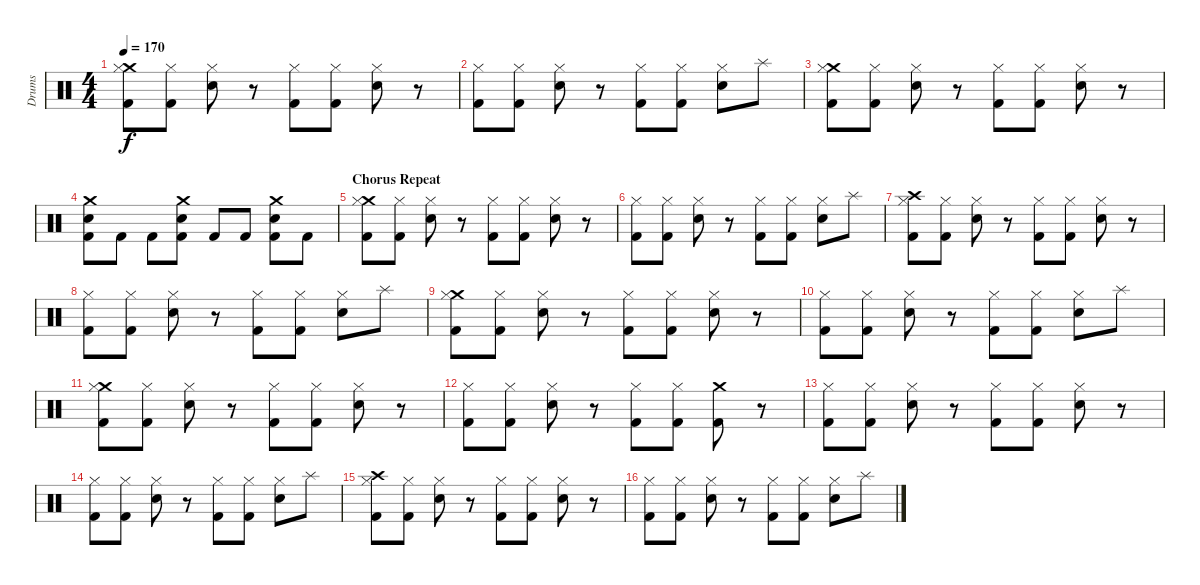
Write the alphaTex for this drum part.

\track ("Drums" "Drums") {instrument percussion}
\staff {score}
\articulation defaults
\ts (4 4)
\tempo 170
\clef neutral
\ks c
("Crash medium (hit)" "Hi-Hat (closed)" "Kick (hit) 2").8{dy f} ("Hi-Hat (closed)" "Kick (hit) 2").8 ("Hi-Hat (closed)" "Snare (hit) 2").8 r.8 ("Hi-Hat (closed)" "Kick (hit) 2").8 ("Hi-Hat (closed)" "Kick (hit) 2").8 ("Hi-Hat (closed)" "Snare (hit) 2").8 r.8 |
("Hi-Hat (closed)" "Kick (hit) 2").8 ("Hi-Hat (closed)" "Kick (hit) 2").8 ("Hi-Hat (closed)" "Snare (hit) 2").8 r.8 ("Hi-Hat (closed)" "Kick (hit) 2").8 ("Hi-Hat (closed)" "Kick (hit) 2").8 ("Hi-Hat (closed)" "Snare (hit) 2").8 "Splash (hit)".8 |
("Crash medium (hit)" "Hi-Hat (closed)" "Kick (hit) 2").8 ("Hi-Hat (closed)" "Kick (hit) 2").8 ("Hi-Hat (closed)" "Snare (hit) 2").8 r.8 ("Hi-Hat (closed)" "Kick (hit) 2").8 ("Hi-Hat (closed)" "Kick (hit) 2").8 ("Hi-Hat (closed)" "Snare (hit) 2").8 r.8 |
("Crash medium (hit)" "Snare (hit) 2" "Kick (hit) 2").8 "Kick (hit) 2".8 "Kick (hit) 2".8 ("Crash medium (hit)" "Snare (hit) 2" "Kick (hit) 2").8 "Kick (hit) 2".8 "Kick (hit) 2".8 ("Crash medium (hit)" "Snare (hit) 2" "Kick (hit) 2").8 "Kick (hit) 2".8 |
\section ("" "Chorus Repeat")
("Crash medium (hit)" "Hi-Hat (closed)" "Kick (hit) 2").8 ("Hi-Hat (closed)" "Kick (hit) 2").8 ("Hi-Hat (closed)" "Snare (hit) 2").8 r.8 ("Hi-Hat (closed)" "Kick (hit) 2").8 ("Hi-Hat (closed)" "Kick (hit) 2").8 ("Hi-Hat (closed)" "Snare (hit) 2").8 r.8 |
("Hi-Hat (closed)" "Kick (hit) 2").8 ("Hi-Hat (closed)" "Kick (hit) 2").8 ("Hi-Hat (closed)" "Snare (hit) 2").8 r.8 ("Hi-Hat (closed)" "Kick (hit) 2").8 ("Hi-Hat (closed)" "Kick (hit) 2").8 ("Hi-Hat (closed)" "Snare (hit) 2").8 "Splash (hit)".8 |
("Crash high (hit)" "Hi-Hat (closed)" "Kick (hit) 2").8 ("Hi-Hat (closed)" "Kick (hit) 2").8 ("Hi-Hat (closed)" "Snare (hit) 2").8 r.8 ("Hi-Hat (closed)" "Kick (hit) 2").8 ("Hi-Hat (closed)" "Kick (hit) 2").8 ("Hi-Hat (closed)" "Snare (hit) 2").8 r.8 |
("Hi-Hat (closed)" "Kick (hit) 2").8 ("Hi-Hat (closed)" "Kick (hit) 2").8 ("Hi-Hat (closed)" "Snare (hit) 2").8 r.8 ("Hi-Hat (closed)" "Kick (hit) 2").8 ("Hi-Hat (closed)" "Kick (hit) 2").8 ("Hi-Hat (closed)" "Snare (hit) 2").8 "Splash (hit)".8 |
("Crash medium (hit)" "Hi-Hat (closed)" "Kick (hit) 2").8 ("Hi-Hat (closed)" "Kick (hit) 2").8 ("Hi-Hat (closed)" "Snare (hit) 2").8 r.8 ("Hi-Hat (closed)" "Kick (hit) 2").8 ("Hi-Hat (closed)" "Kick (hit) 2").8 ("Hi-Hat (closed)" "Snare (hit) 2").8 r.8 |
("Hi-Hat (closed)" "Kick (hit) 2").8 ("Hi-Hat (closed)" "Kick (hit) 2").8 ("Hi-Hat (closed)" "Snare (hit) 2").8 r.8 ("Hi-Hat (closed)" "Kick (hit) 2").8 ("Hi-Hat (closed)" "Kick (hit) 2").8 ("Hi-Hat (closed)" "Snare (hit) 2").8 "Splash (hit)".8 |
("Crash medium (hit)" "Hi-Hat (closed)" "Kick (hit) 2").8 ("Hi-Hat (closed)" "Kick (hit) 2").8 ("Hi-Hat (closed)" "Snare (hit) 2").8 r.8 ("Hi-Hat (closed)" "Kick (hit) 2").8 ("Hi-Hat (closed)" "Kick (hit) 2").8 ("Hi-Hat (closed)" "Snare (hit) 2").8 r.8 |
("Hi-Hat (closed)" "Kick (hit) 2").8 ("Hi-Hat (closed)" "Kick (hit) 2").8 ("Hi-Hat (closed)" "Snare (hit) 2").8 r.8 ("Hi-Hat (closed)" "Kick (hit) 2").8 ("Hi-Hat (closed)" "Kick (hit) 2").8 ("Crash medium (hit)" "Kick (hit) 2").8 r.8 |
("Hi-Hat (closed)" "Kick (hit) 2").8 ("Hi-Hat (closed)" "Kick (hit) 2").8 ("Hi-Hat (closed)" "Snare (hit) 2").8 r.8 ("Hi-Hat (closed)" "Kick (hit) 2").8 ("Hi-Hat (closed)" "Kick (hit) 2").8 ("Hi-Hat (closed)" "Snare (hit) 2").8 r.8 |
("Hi-Hat (closed)" "Kick (hit) 2").8 ("Hi-Hat (closed)" "Kick (hit) 2").8 ("Hi-Hat (closed)" "Snare (hit) 2").8 r.8 ("Hi-Hat (closed)" "Kick (hit) 2").8 ("Hi-Hat (closed)" "Kick (hit) 2").8 ("Hi-Hat (closed)" "Snare (hit) 2").8 "Splash (hit)".8 |
("Crash high (hit)" "Hi-Hat (closed)" "Kick (hit) 2").8 ("Hi-Hat (closed)" "Kick (hit) 2").8 ("Hi-Hat (closed)" "Snare (hit) 2").8 r.8 ("Hi-Hat (closed)" "Kick (hit) 2").8 ("Hi-Hat (closed)" "Kick (hit) 2").8 ("Hi-Hat (closed)" "Snare (hit) 2").8 r.8 |
("Hi-Hat (closed)" "Kick (hit) 2").8 ("Hi-Hat (closed)" "Kick (hit) 2").8 ("Hi-Hat (closed)" "Snare (hit) 2").8 r.8 ("Hi-Hat (closed)" "Kick (hit) 2").8 ("Hi-Hat (closed)" "Kick (hit) 2").8 ("Hi-Hat (closed)" "Snare (hit) 2").8 "Splash (hit)".8
